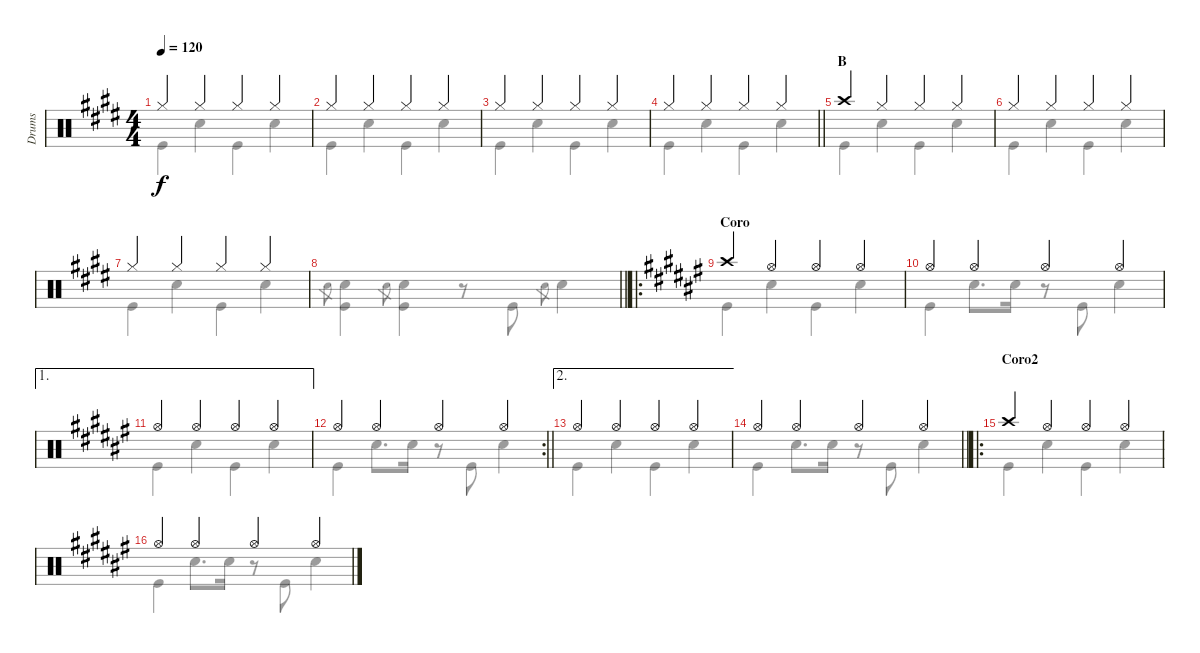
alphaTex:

\track ("Drums" "Drums") {instrument percussion}
\staff {score}
\articulation defaults
\voice
\ts (4 4)
\tempo 120
\clef neutral
\ks e "Hi-Hat (closed)".4{dy f} "Hi-Hat (closed)".4 "Hi-Hat (closed)".4 "Hi-Hat (closed)".4
|
"Hi-Hat (closed)".4 "Hi-Hat (closed)".4 "Hi-Hat (closed)".4 "Hi-Hat (closed)".4 |
"Hi-Hat (closed)".4 "Hi-Hat (closed)".4 "Hi-Hat (closed)".4 "Hi-Hat (closed)".4 |
\barLineRight lightlight "Hi-Hat (closed)".4 "Hi-Hat (closed)".4 "Hi-Hat (closed)".4 "Hi-Hat (closed)".4
|
\section ("" "B")
"Crash high (hit)".4 "Hi-Hat (closed)".4 "Hi-Hat (closed)".4 "Hi-Hat (closed)".4 |
"Hi-Hat (closed)".4 "Hi-Hat (closed)".4 "Hi-Hat (closed)".4 "Hi-Hat (closed)".4 |
"Hi-Hat (closed)".4 "Hi-Hat (closed)".4 "Hi-Hat (closed)".4 "Hi-Hat (closed)".4 |
\barLineRight lightlight
|
\ro
\section ("" "Coro")
\ks f# "Crash high (hit)".4 "Hi-Hat (open)".4 "Hi-Hat (open)".4 "Hi-Hat (open)".4
|
"Hi-Hat (open)".4 "Hi-Hat (open)".4 "Hi-Hat (open)".4 "Hi-Hat (open)".4 |
\ae 1 "Hi-Hat (open)".4 "Hi-Hat (open)".4 "Hi-Hat (open)".4 "Hi-Hat (open)".4
|
\rc 2
\barLineRight lightlight "Hi-Hat (open)".4 "Hi-Hat (open)".4 "Hi-Hat (open)".4 "Hi-Hat (open)".4
|
\ae 2 "Hi-Hat (open)".4 "Hi-Hat (open)".4 "Hi-Hat (open)".4 "Hi-Hat (open)".4
|
\barLineRight lightlight "Hi-Hat (open)".4 "Hi-Hat (open)".4 "Hi-Hat (open)".4 "Hi-Hat (open)".4
|
\ro
\section ("" "Coro2")
"Crash high (hit)".4 "Hi-Hat (open)".4 "Hi-Hat (open)".4 "Hi-Hat (open)".4 |
"Hi-Hat (open)".4 "Hi-Hat (open)".4 "Hi-Hat (open)".4 "Hi-Hat (open)".4
\voice
\clef neutral
\ottava regular
\simile none
\ks e "Kick (hit)".4{dy f} "Snare (hit) 2".4 "Kick (hit)".4 "Snare (hit) 2".4
|
"Kick (hit)".4 "Snare (hit) 2".4 "Kick (hit)".4 "Snare (hit) 2".4 |
"Kick (hit)".4 "Snare (hit) 2".4 "Kick (hit)".4 "Snare (hit) 2".4 |
\barLineRight lightlight "Kick (hit)".4 "Snare (hit) 2".4 "Kick (hit)".4 "Snare (hit) 2".4
|
"Kick (hit)".4 "Snare (hit) 2".4 "Kick (hit)".4 "Snare (hit) 2".4 |
"Kick (hit)".4 "Snare (hit) 2".4 "Kick (hit)".4 "Snare (hit) 2".4 |
"Kick (hit)".4 "Snare (hit) 2".4 "Kick (hit)".4 "Snare (hit) 2".4 |
\barLineRight lightlight "Snare (hit) 2".8{gr}
("Snare (hit) 2" "Kick (hit)").4 "Snare (hit) 2".8{gr} ("Snare (hit) 2" "Kick (hit)").4 r.8 "Kick (hit)".8 "Snare (hit) 2".8{gr} "Snare (hit) 2".4 |
\ks f# "Kick (hit)".4 "Snare (hit) 2".4 "Kick (hit)".4 "Snare (hit) 2".4
|
"Kick (hit)".4 "Snare (hit) 2".8{d} "Snare (hit) 2".16 r.8 "Kick (hit)".8 "Snare (hit) 2".4 |
"Kick (hit)".4 "Snare (hit) 2".4 "Kick (hit)".4 "Snare (hit) 2".4 |
\barLineRight lightlight "Kick (hit)".4 "Snare (hit) 2".8{d} "Snare (hit) 2".16
r.8 "Kick (hit)".8 "Snare (hit) 2".4 |
"Kick (hit)".4 "Snare (hit) 2".4 "Kick (hit)".4 "Snare (hit) 2".4 |
\barLineRight lightlight "Kick (hit)".4 "Snare (hit) 2".8{d} "Snare (hit) 2".16
r.8 "Kick (hit)".8 "Snare (hit) 2".4 |
"Kick (hit)".4 "Snare (hit) 2".4 "Kick (hit)".4 "Snare (hit) 2".4 |
"Kick (hit)".4 "Snare (hit) 2".8{d} "Snare (hit) 2".16 r.8 "Kick (hit)".8 "Snare (hit) 2".4
